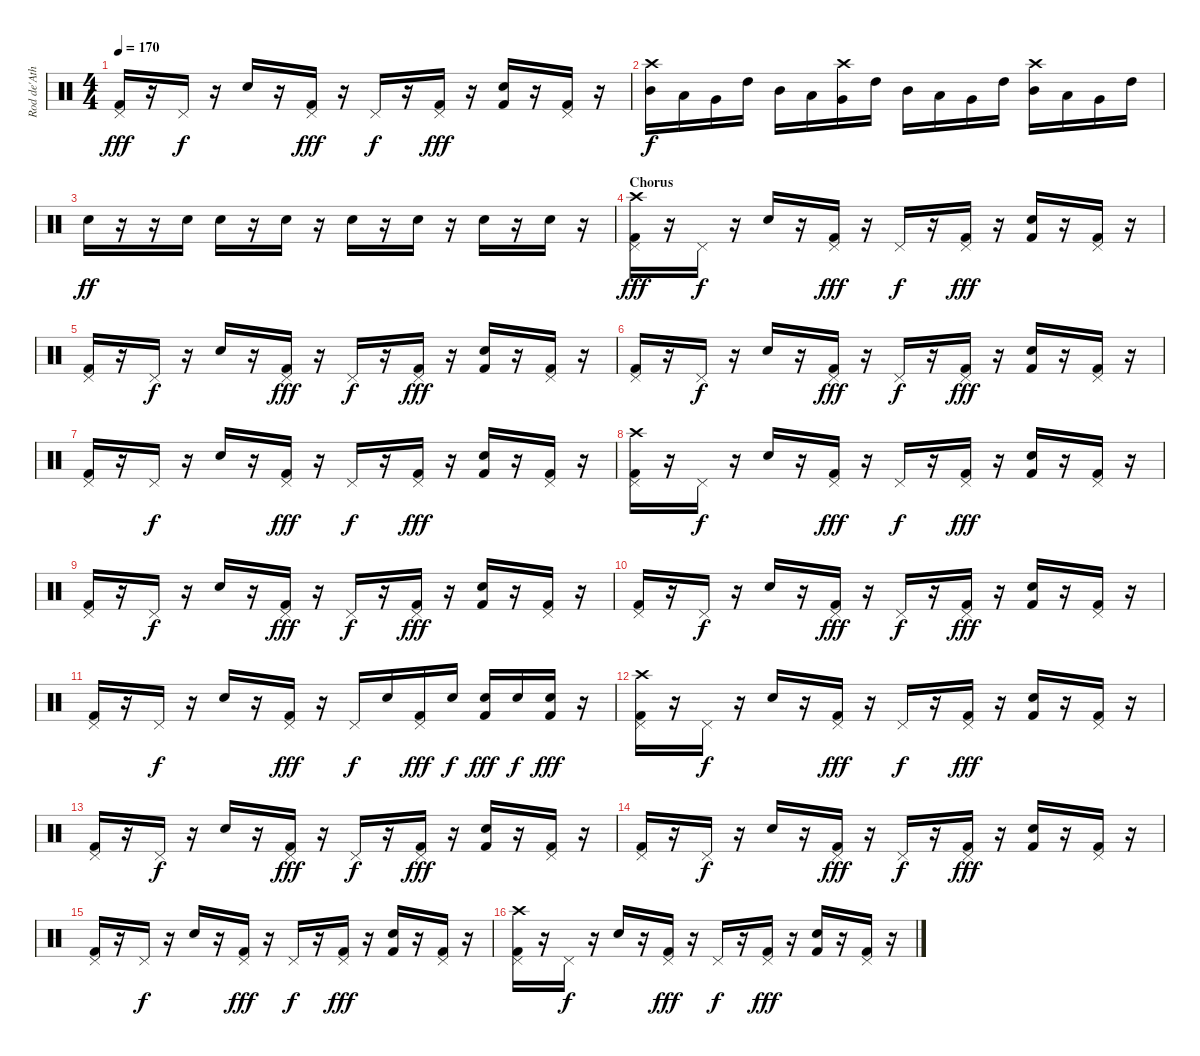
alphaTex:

\track ("Rod de'Ath" "Rod de'Ath") {instrument percussion}
\staff {score}
\articulation defaults
\ts (4 4)
\tempo 170
\clef neutral
\ks c
("Pedal Hi-Hat (hit)" "Kick (hit) 2").16{dy fff} r.16 "Pedal Hi-Hat (hit)".16{dy f} r.16 "Snare (hit) 2".16 r.16 ("Pedal Hi-Hat (hit)" "Kick (hit) 2").16{dy fff} r.16 "Pedal Hi-Hat (hit)".16{dy f} r.16 ("Pedal Hi-Hat (hit)" "Kick (hit) 2").16{dy fff} r.16 ("Electric Snare (hit)" "Kick (hit) 2").16 r.16 ("Pedal Hi-Hat (hit)" "Kick (hit) 2").16 r.16 |
("Crash high (hit)" "Mid Tom (hit)").16{dy f} "Low Tom (hit)".16 "Very Low Tom (hit)".16 "High Tom (hit)".16 "Mid Tom (hit)".16 "Low Tom (hit)".16 ("Crash high (hit)" "Very Low Tom (hit)").16 "High Tom (hit)".16 "Mid Tom (hit)".16 "Low Tom (hit)".16 "Very Low Tom (hit)".16 "High Tom (hit)".16 ("Crash high (hit)" "Mid Tom (hit)").16 "Low Tom (hit)".16 "Very Low Tom (hit)".16 "High Tom (hit)".16 |
"Snare (hit) 2".16{dy ff} r.16 r.16 "Snare (hit) 2".16 "Snare (hit) 2".16 r.16 "Snare (hit) 2".16 r.16 "Snare (hit) 2".16 r.16 "Snare (hit) 2".16 r.16 "Snare (hit) 2".16 r.16 "Snare (hit) 2".16 r.16 |
\section ("" "Chorus")
("Crash high (hit)" "Pedal Hi-Hat (hit)" "Kick (hit) 2").16{dy fff} r.16 "Pedal Hi-Hat (hit)".16{dy f} r.16 "Snare (hit) 2".16 r.16 ("Pedal Hi-Hat (hit)" "Kick (hit) 2").16{dy fff} r.16 "Pedal Hi-Hat (hit)".16{dy f} r.16 ("Pedal Hi-Hat (hit)" "Kick (hit) 2").16{dy fff} r.16 ("Electric Snare (hit)" "Kick (hit) 2").16 r.16 ("Pedal Hi-Hat (hit)" "Kick (hit) 2").16 r.16 |
("Pedal Hi-Hat (hit)" "Kick (hit) 2").16 r.16 "Pedal Hi-Hat (hit)".16{dy f} r.16 "Snare (hit) 2".16 r.16 ("Pedal Hi-Hat (hit)" "Kick (hit) 2").16{dy fff} r.16 "Pedal Hi-Hat (hit)".16{dy f} r.16 ("Pedal Hi-Hat (hit)" "Kick (hit) 2").16{dy fff} r.16 ("Electric Snare (hit)" "Kick (hit) 2").16 r.16 ("Pedal Hi-Hat (hit)" "Kick (hit) 2").16 r.16 |
("Pedal Hi-Hat (hit)" "Kick (hit) 2").16 r.16 "Pedal Hi-Hat (hit)".16{dy f} r.16 "Snare (hit) 2".16 r.16 ("Pedal Hi-Hat (hit)" "Kick (hit) 2").16{dy fff} r.16 "Pedal Hi-Hat (hit)".16{dy f} r.16 ("Pedal Hi-Hat (hit)" "Kick (hit) 2").16{dy fff} r.16 ("Electric Snare (hit)" "Kick (hit) 2").16 r.16 ("Pedal Hi-Hat (hit)" "Kick (hit) 2").16 r.16 |
("Pedal Hi-Hat (hit)" "Kick (hit) 2").16 r.16 "Pedal Hi-Hat (hit)".16{dy f} r.16 "Snare (hit) 2".16 r.16 ("Pedal Hi-Hat (hit)" "Kick (hit) 2").16{dy fff} r.16 "Pedal Hi-Hat (hit)".16{dy f} r.16 ("Pedal Hi-Hat (hit)" "Kick (hit) 2").16{dy fff} r.16 ("Electric Snare (hit)" "Kick (hit) 2").16 r.16 ("Pedal Hi-Hat (hit)" "Kick (hit) 2").16 r.16 |
("Crash high (hit)" "Pedal Hi-Hat (hit)" "Kick (hit) 2").16 r.16 "Pedal Hi-Hat (hit)".16{dy f} r.16 "Snare (hit) 2".16 r.16 ("Pedal Hi-Hat (hit)" "Kick (hit) 2").16{dy fff} r.16 "Pedal Hi-Hat (hit)".16{dy f} r.16 ("Pedal Hi-Hat (hit)" "Kick (hit) 2").16{dy fff} r.16 ("Electric Snare (hit)" "Kick (hit) 2").16 r.16 ("Pedal Hi-Hat (hit)" "Kick (hit) 2").16 r.16 |
("Pedal Hi-Hat (hit)" "Kick (hit) 2").16 r.16 "Pedal Hi-Hat (hit)".16{dy f} r.16 "Snare (hit) 2".16 r.16 ("Pedal Hi-Hat (hit)" "Kick (hit) 2").16{dy fff} r.16 "Pedal Hi-Hat (hit)".16{dy f} r.16 ("Pedal Hi-Hat (hit)" "Kick (hit) 2").16{dy fff} r.16 ("Electric Snare (hit)" "Kick (hit) 2").16 r.16 ("Pedal Hi-Hat (hit)" "Kick (hit) 2").16 r.16 |
("Pedal Hi-Hat (hit)" "Kick (hit) 2").16 r.16 "Pedal Hi-Hat (hit)".16{dy f} r.16 "Snare (hit) 2".16 r.16 ("Pedal Hi-Hat (hit)" "Kick (hit) 2").16{dy fff} r.16 "Pedal Hi-Hat (hit)".16{dy f} r.16 ("Pedal Hi-Hat (hit)" "Kick (hit) 2").16{dy fff} r.16 ("Electric Snare (hit)" "Kick (hit) 2").16 r.16 ("Pedal Hi-Hat (hit)" "Kick (hit) 2").16 r.16 |
("Pedal Hi-Hat (hit)" "Kick (hit) 2").16 r.16 "Pedal Hi-Hat (hit)".16{dy f} r.16 "Snare (hit) 2".16 r.16 ("Pedal Hi-Hat (hit)" "Kick (hit) 2").16{dy fff} r.16 "Pedal Hi-Hat (hit)".16{dy f} "Electric Snare (hit)".16 ("Pedal Hi-Hat (hit)" "Kick (hit) 2").16{dy fff} "Electric Snare (hit)".16{dy f} ("Electric Snare (hit)" "Kick (hit) 2").16{dy fff} "Electric Snare (hit)".16{dy f} ("Electric Snare (hit)" "Kick (hit) 2").16{dy fff} r.16 |
("Crash high (hit)" "Pedal Hi-Hat (hit)" "Kick (hit) 2").16 r.16 "Pedal Hi-Hat (hit)".16{dy f} r.16 "Snare (hit) 2".16 r.16 ("Pedal Hi-Hat (hit)" "Kick (hit) 2").16{dy fff} r.16 "Pedal Hi-Hat (hit)".16{dy f} r.16 ("Pedal Hi-Hat (hit)" "Kick (hit) 2").16{dy fff} r.16 ("Electric Snare (hit)" "Kick (hit) 2").16 r.16 ("Pedal Hi-Hat (hit)" "Kick (hit) 2").16 r.16 |
("Pedal Hi-Hat (hit)" "Kick (hit) 2").16 r.16 "Pedal Hi-Hat (hit)".16{dy f} r.16 "Snare (hit) 2".16 r.16 ("Pedal Hi-Hat (hit)" "Kick (hit) 2").16{dy fff} r.16 "Pedal Hi-Hat (hit)".16{dy f} r.16 ("Pedal Hi-Hat (hit)" "Kick (hit) 2").16{dy fff} r.16 ("Electric Snare (hit)" "Kick (hit) 2").16 r.16 ("Pedal Hi-Hat (hit)" "Kick (hit) 2").16 r.16 |
("Pedal Hi-Hat (hit)" "Kick (hit) 2").16 r.16 "Pedal Hi-Hat (hit)".16{dy f} r.16 "Snare (hit) 2".16 r.16 ("Pedal Hi-Hat (hit)" "Kick (hit) 2").16{dy fff} r.16 "Pedal Hi-Hat (hit)".16{dy f} r.16 ("Pedal Hi-Hat (hit)" "Kick (hit) 2").16{dy fff} r.16 ("Electric Snare (hit)" "Kick (hit) 2").16 r.16 ("Pedal Hi-Hat (hit)" "Kick (hit) 2").16 r.16 |
("Pedal Hi-Hat (hit)" "Kick (hit) 2").16 r.16 "Pedal Hi-Hat (hit)".16{dy f} r.16 "Snare (hit) 2".16 r.16 ("Pedal Hi-Hat (hit)" "Kick (hit) 2").16{dy fff} r.16 "Pedal Hi-Hat (hit)".16{dy f} r.16 ("Pedal Hi-Hat (hit)" "Kick (hit) 2").16{dy fff} r.16 ("Electric Snare (hit)" "Kick (hit) 2").16 r.16 ("Pedal Hi-Hat (hit)" "Kick (hit) 2").16 r.16 |
("Crash high (hit)" "Pedal Hi-Hat (hit)" "Kick (hit) 2").16 r.16 "Pedal Hi-Hat (hit)".16{dy f} r.16 "Snare (hit) 2".16 r.16 ("Pedal Hi-Hat (hit)" "Kick (hit) 2").16{dy fff} r.16 "Pedal Hi-Hat (hit)".16{dy f} r.16 ("Pedal Hi-Hat (hit)" "Kick (hit) 2").16{dy fff} r.16 ("Electric Snare (hit)" "Kick (hit) 2").16 r.16 ("Pedal Hi-Hat (hit)" "Kick (hit) 2").16 r.16
